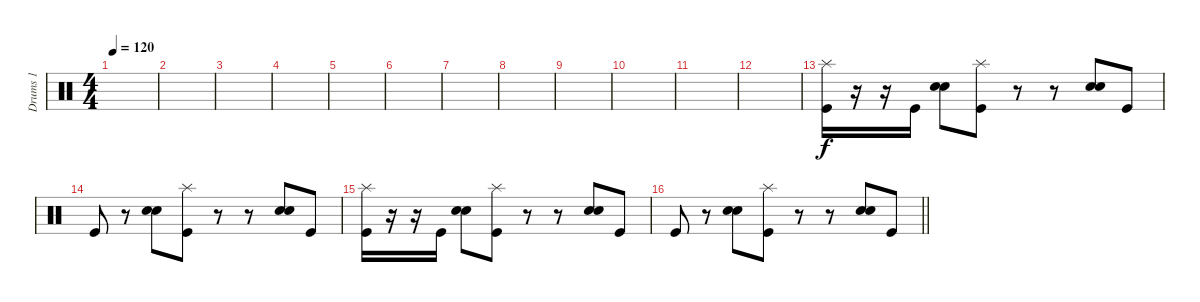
\track ("Drums 1" "Drums 1") {instrument percussion}
\staff {score}
\articulation defaults
\ts (4 4)
\tempo 120
\clef neutral
\ks c
|
|
|
|
|
|
|
|
|
|
|
|
("Splash (hit)" "Kick (hit)").16 r.16 r.16 "Kick (hit)".16 ("Hand Clap (hit)" "Electric Snare (hit)").8 ("Splash (hit)" "Kick (hit)").8 r.8 r.8 ("Hand Clap (hit)" "Electric Snare (hit)").8 "Kick (hit)".8 |
"Kick (hit)".8 r.8 ("Hand Clap (hit)" "Electric Snare (hit)").8 ("Splash (hit)" "Kick (hit)").8 r.8 r.8 ("Hand Clap (hit)" "Electric Snare (hit)").8 "Kick (hit)".8 |
("Splash (hit)" "Kick (hit)").16 r.16 r.16 "Kick (hit)".16 ("Hand Clap (hit)" "Electric Snare (hit)").8 ("Splash (hit)" "Kick (hit)").8 r.8 r.8 ("Hand Clap (hit)" "Electric Snare (hit)").8 "Kick (hit)".8 |
\barLineRight lightlight "Kick (hit)".8
r.8 ("Hand Clap (hit)" "Electric Snare (hit)").8 ("Splash (hit)" "Kick (hit)").8 r.8 r.8 ("Hand Clap (hit)" "Electric Snare (hit)").8 "Kick (hit)".8
